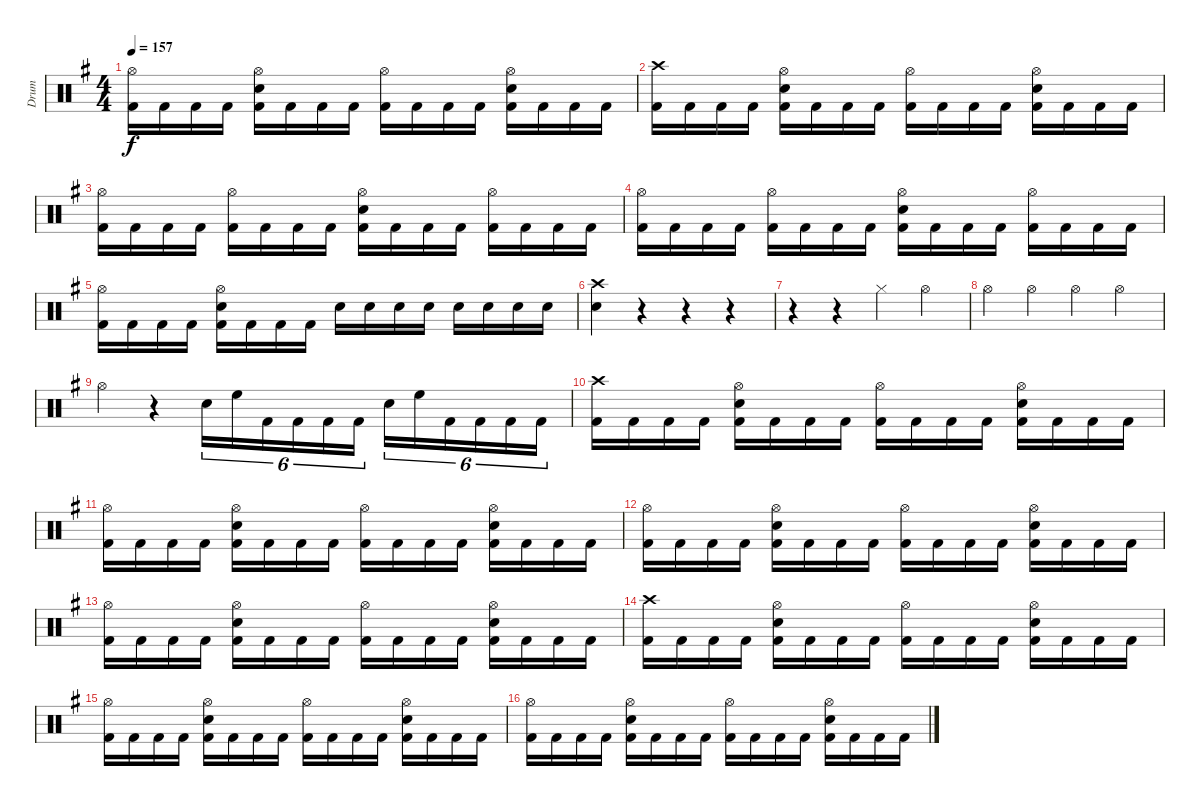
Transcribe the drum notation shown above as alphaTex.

\track ("Drum" "Drum") {instrument percussion}
\staff {score}
\articulation defaults
\ts (4 4)
\tempo 157
\clef neutral
\ks eminor
("Hi-Hat (open)" "Kick (hit) 2").16{dy f} "Kick (hit) 2".16 "Kick (hit) 2".16 "Kick (hit) 2".16 ("Hi-Hat (open)" "Snare (hit) 2" "Kick (hit) 2").16 "Kick (hit) 2".16 "Kick (hit) 2".16 "Kick (hit) 2".16 ("Hi-Hat (open)" "Kick (hit) 2").16 "Kick (hit) 2".16 "Kick (hit) 2".16 "Kick (hit) 2".16 ("Hi-Hat (open)" "Snare (hit) 2" "Kick (hit) 2").16 "Kick (hit) 2".16 "Kick (hit) 2".16 "Kick (hit) 2".16 |
("Crash high (hit)" "Kick (hit) 2").16 "Kick (hit) 2".16 "Kick (hit) 2".16 "Kick (hit) 2".16 ("Hi-Hat (open)" "Snare (hit) 2" "Kick (hit) 2").16 "Kick (hit) 2".16 "Kick (hit) 2".16 "Kick (hit) 2".16 ("Hi-Hat (open)" "Kick (hit) 2").16 "Kick (hit) 2".16 "Kick (hit) 2".16 "Kick (hit) 2".16 ("Hi-Hat (open)" "Snare (hit) 2" "Kick (hit) 2").16 "Kick (hit) 2".16 "Kick (hit) 2".16 "Kick (hit) 2".16 |
("Hi-Hat (open)" "Kick (hit) 2").16 "Kick (hit) 2".16 "Kick (hit) 2".16 "Kick (hit) 2".16 ("Hi-Hat (open)" "Kick (hit) 2").16 "Kick (hit) 2".16 "Kick (hit) 2".16 "Kick (hit) 2".16 ("Hi-Hat (open)" "Snare (hit) 2" "Kick (hit) 2").16 "Kick (hit) 2".16 "Kick (hit) 2".16 "Kick (hit) 2".16 ("Hi-Hat (open)" "Kick (hit) 2").16 "Kick (hit) 2".16 "Kick (hit) 2".16 "Kick (hit) 2".16 |
("Hi-Hat (open)" "Kick (hit) 2").16 "Kick (hit) 2".16 "Kick (hit) 2".16 "Kick (hit) 2".16 ("Hi-Hat (open)" "Kick (hit) 2").16 "Kick (hit) 2".16 "Kick (hit) 2".16 "Kick (hit) 2".16 ("Hi-Hat (open)" "Snare (hit) 2" "Kick (hit) 2").16 "Kick (hit) 2".16 "Kick (hit) 2".16 "Kick (hit) 2".16 ("Hi-Hat (open)" "Kick (hit) 2").16 "Kick (hit) 2".16 "Kick (hit) 2".16 "Kick (hit) 2".16 |
("Hi-Hat (open)" "Kick (hit) 2").16 "Kick (hit) 2".16 "Kick (hit) 2".16 "Kick (hit) 2".16 ("Hi-Hat (open)" "Snare (hit) 2" "Kick (hit) 2").16 "Kick (hit) 2".16 "Kick (hit) 2".16 "Kick (hit) 2".16 "Snare (hit) 2".16 "Snare (hit) 2".16 "Snare (hit) 2".16 "Snare (hit) 2".16 "Snare (hit) 2".16 "Snare (hit) 2".16 "Snare (hit) 2".16 "Snare (hit) 2".16 |
("Crash high (hit)" "Snare (hit) 2").4 r.4 r.4 r.4 |
r.4 r.4 "Hi-Hat (closed)".4 "Hi-Hat (open)".4 |
"Hi-Hat (open)".4 "Hi-Hat (open)".4 "Hi-Hat (open)".4 "Hi-Hat (open)".4 |
"Hi-Hat (open)".4 r.4 "Snare (hit) 2".16{tu (6 4)} "High Floor Tom (hit)".16{tu (6 4)} "Kick (hit) 2".16{tu (6 4)} "Kick (hit) 2".16{tu (6 4)} "Kick (hit) 2".16{tu (6 4)} "Kick (hit) 2".16{tu (6 4)} "Snare (hit) 2".16{tu (6 4)} "High Floor Tom (hit)".16{tu (6 4)} "Kick (hit) 2".16{tu (6 4)} "Kick (hit) 2".16{tu (6 4)} "Kick (hit) 2".16{tu (6 4)} "Kick (hit) 2".16{tu (6 4)} |
("Crash high (hit)" "Kick (hit) 2").16 "Kick (hit) 2".16 "Kick (hit) 2".16 "Kick (hit) 2".16 ("Hi-Hat (open)" "Snare (hit) 2" "Kick (hit) 2").16 "Kick (hit) 2".16 "Kick (hit) 2".16 "Kick (hit) 2".16 ("Hi-Hat (open)" "Kick (hit) 2").16 "Kick (hit) 2".16 "Kick (hit) 2".16 "Kick (hit) 2".16 ("Hi-Hat (open)" "Snare (hit) 2" "Kick (hit) 2").16 "Kick (hit) 2".16 "Kick (hit) 2".16 "Kick (hit) 2".16 |
("Hi-Hat (open)" "Kick (hit) 2").16 "Kick (hit) 2".16 "Kick (hit) 2".16 "Kick (hit) 2".16 ("Hi-Hat (open)" "Snare (hit) 2" "Kick (hit) 2").16 "Kick (hit) 2".16 "Kick (hit) 2".16 "Kick (hit) 2".16 ("Hi-Hat (open)" "Kick (hit) 2").16 "Kick (hit) 2".16 "Kick (hit) 2".16 "Kick (hit) 2".16 ("Hi-Hat (open)" "Snare (hit) 2" "Kick (hit) 2").16 "Kick (hit) 2".16 "Kick (hit) 2".16 "Kick (hit) 2".16 |
("Hi-Hat (open)" "Kick (hit) 2").16 "Kick (hit) 2".16 "Kick (hit) 2".16 "Kick (hit) 2".16 ("Hi-Hat (open)" "Snare (hit) 2" "Kick (hit) 2").16 "Kick (hit) 2".16 "Kick (hit) 2".16 "Kick (hit) 2".16 ("Hi-Hat (open)" "Kick (hit) 2").16 "Kick (hit) 2".16 "Kick (hit) 2".16 "Kick (hit) 2".16 ("Hi-Hat (open)" "Snare (hit) 2" "Kick (hit) 2").16 "Kick (hit) 2".16 "Kick (hit) 2".16 "Kick (hit) 2".16 |
("Hi-Hat (open)" "Kick (hit) 2").16 "Kick (hit) 2".16 "Kick (hit) 2".16 "Kick (hit) 2".16 ("Hi-Hat (open)" "Snare (hit) 2" "Kick (hit) 2").16 "Kick (hit) 2".16 "Kick (hit) 2".16 "Kick (hit) 2".16 ("Hi-Hat (open)" "Kick (hit) 2").16 "Kick (hit) 2".16 "Kick (hit) 2".16 "Kick (hit) 2".16 ("Hi-Hat (open)" "Snare (hit) 2" "Kick (hit) 2").16 "Kick (hit) 2".16 "Kick (hit) 2".16 "Kick (hit) 2".16 |
("Crash high (hit)" "Kick (hit) 2").16 "Kick (hit) 2".16 "Kick (hit) 2".16 "Kick (hit) 2".16 ("Hi-Hat (open)" "Snare (hit) 2" "Kick (hit) 2").16 "Kick (hit) 2".16 "Kick (hit) 2".16 "Kick (hit) 2".16 ("Hi-Hat (open)" "Kick (hit) 2").16 "Kick (hit) 2".16 "Kick (hit) 2".16 "Kick (hit) 2".16 ("Hi-Hat (open)" "Snare (hit) 2" "Kick (hit) 2").16 "Kick (hit) 2".16 "Kick (hit) 2".16 "Kick (hit) 2".16 |
("Hi-Hat (open)" "Kick (hit) 2").16 "Kick (hit) 2".16 "Kick (hit) 2".16 "Kick (hit) 2".16 ("Hi-Hat (open)" "Snare (hit) 2" "Kick (hit) 2").16 "Kick (hit) 2".16 "Kick (hit) 2".16 "Kick (hit) 2".16 ("Hi-Hat (open)" "Kick (hit) 2").16 "Kick (hit) 2".16 "Kick (hit) 2".16 "Kick (hit) 2".16 ("Hi-Hat (open)" "Snare (hit) 2" "Kick (hit) 2").16 "Kick (hit) 2".16 "Kick (hit) 2".16 "Kick (hit) 2".16 |
("Hi-Hat (open)" "Kick (hit) 2").16 "Kick (hit) 2".16 "Kick (hit) 2".16 "Kick (hit) 2".16 ("Hi-Hat (open)" "Snare (hit) 2" "Kick (hit) 2").16 "Kick (hit) 2".16 "Kick (hit) 2".16 "Kick (hit) 2".16 ("Hi-Hat (open)" "Kick (hit) 2").16 "Kick (hit) 2".16 "Kick (hit) 2".16 "Kick (hit) 2".16 ("Hi-Hat (open)" "Snare (hit) 2" "Kick (hit) 2").16 "Kick (hit) 2".16 "Kick (hit) 2".16 "Kick (hit) 2".16
